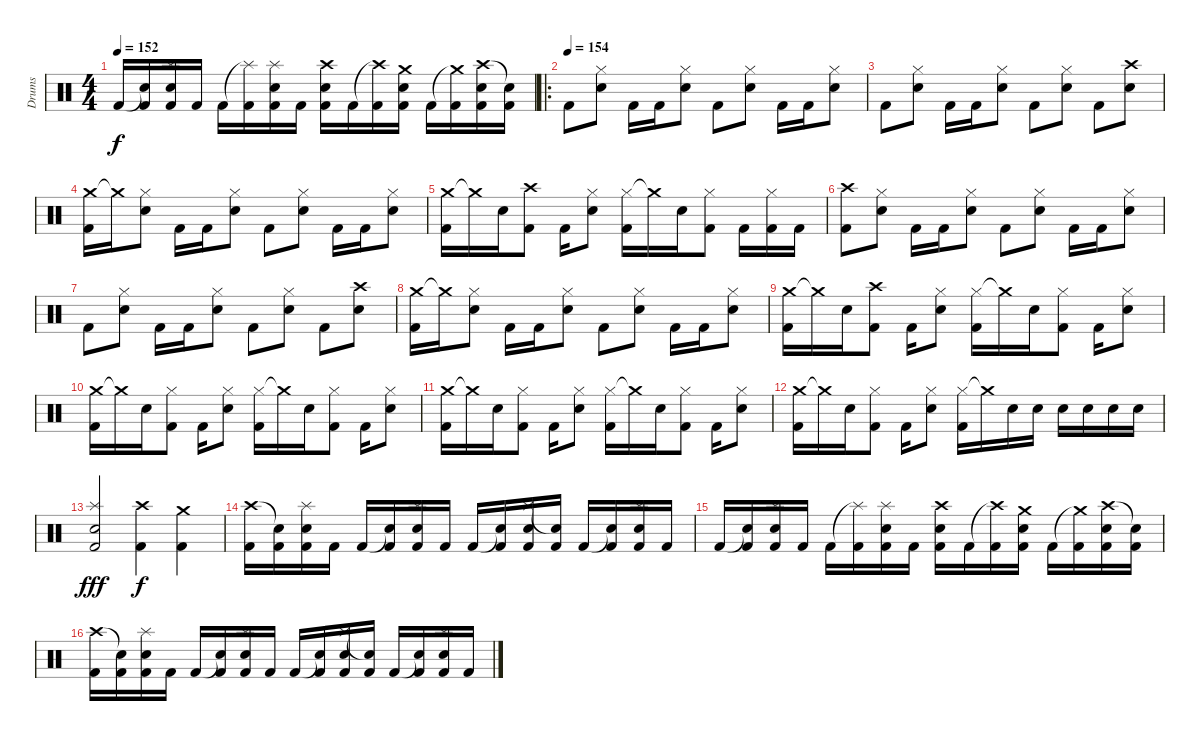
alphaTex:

\track ("Drums" "Drums") {instrument percussion}
\staff {score}
\articulation defaults
\ts (4 4)
\tempo 152
\clef neutral
\ks c "Kick (hit) 2".16{dy f}
("Snare (hit)"{t} "Kick (hit) 2").16 ("Splash (hit)" "Electric Snare (hit)" "Kick (hit) 2").16 "Kick (hit) 2".16 "Kick (hit) 2".16 ("Splash (hit)"{t} "Kick (hit) 2").16 ("Splash (hit)" "Electric Snare (hit)" "Kick (hit) 2").16 "Kick (hit) 2".16 ("Crash high (hit)" "Electric Snare (hit)" "Kick (hit) 2").16 "Kick (hit) 2".16 ("Crash high (hit)"{t} "Kick (hit) 2").16 ("Crash medium (hit)" "Electric Snare (hit)" "Kick (hit) 2").16 "Kick (hit) 2".16 ("Crash medium (hit)"{t} "Kick (hit) 2").16 ("Crash high (hit)" "Electric Snare (hit)" "Kick (hit) 2").16 ("Snare (hit)"{t} "Kick (hit) 2").16 |
\ro
\tempo (154)
"Kick (hit) 2".8 ("Hi-Hat (closed)" "Electric Snare (hit)").8 "Kick (hit) 2".16 "Kick (hit) 2".16 ("Hi-Hat (closed)" "Electric Snare (hit)").8 "Kick (hit) 2".8 ("Hi-Hat (closed)" "Electric Snare (hit)").8 "Kick (hit) 2".16 "Kick (hit) 2".16 ("Hi-Hat (closed)" "Electric Snare (hit)").8 |
"Kick (hit) 2".8 ("Hi-Hat (closed)" "Electric Snare (hit)").8 "Kick (hit) 2".16 "Kick (hit) 2".16 ("Hi-Hat (closed)" "Electric Snare (hit)").8 "Kick (hit) 2".8 ("Hi-Hat (closed)" "Electric Snare (hit)").8 "Kick (hit) 2".8 ("Crash high (hit)" "Electric Snare (hit)").8 |
("Crash medium (hit)" "Kick (hit) 2").16 "Crash medium (hit)"{t}.16 ("Hi-Hat (closed)" "Electric Snare (hit)").8 "Kick (hit) 2".16 "Kick (hit) 2".16 ("Hi-Hat (closed)" "Electric Snare (hit)").8 "Kick (hit) 2".8 ("Hi-Hat (closed)" "Electric Snare (hit)").8 "Kick (hit) 2".16 "Kick (hit) 2".16 ("Hi-Hat (closed)" "Electric Snare (hit)").8 |
("Crash medium (hit)" "Kick (hit) 2").16 "Crash medium (hit)"{t}.16 "Electric Snare (hit)".16 ("Crash high (hit)" "Kick (hit) 2").8 "Kick (hit) 2".16 ("Hi-Hat (closed)" "Electric Snare (hit)").8 ("Hi-Hat (closed)" "Kick (hit) 2").16 "Crash medium (hit)"{t}.16 "Electric Snare (hit)".16 ("Hi-Hat (closed)" "Kick (hit) 2").8 "Kick (hit) 2".16 ("Hi-Hat (closed)" "Kick (hit) 2").16 "Kick (hit) 2".16 |
("Crash high (hit)" "Kick (hit) 2").8 ("Hi-Hat (closed)" "Electric Snare (hit)").8 "Kick (hit) 2".16 "Kick (hit) 2".16 ("Hi-Hat (closed)" "Electric Snare (hit)").8 "Kick (hit) 2".8 ("Hi-Hat (closed)" "Electric Snare (hit)").8 "Kick (hit) 2".16 "Kick (hit) 2".16 ("Hi-Hat (closed)" "Electric Snare (hit)").8 |
"Kick (hit) 2".8 ("Hi-Hat (closed)" "Electric Snare (hit)").8 "Kick (hit) 2".16 "Kick (hit) 2".16 ("Hi-Hat (closed)" "Electric Snare (hit)").8 "Kick (hit) 2".8 ("Hi-Hat (closed)" "Electric Snare (hit)").8 "Kick (hit) 2".8 ("Crash high (hit)" "Electric Snare (hit)").8 |
("Crash medium (hit)" "Kick (hit) 2").16 "Crash medium (hit)"{t}.16 ("Hi-Hat (closed)" "Electric Snare (hit)").8 "Kick (hit) 2".16 "Kick (hit) 2".16 ("Hi-Hat (closed)" "Electric Snare (hit)").8 "Kick (hit) 2".8 ("Hi-Hat (closed)" "Electric Snare (hit)").8 "Kick (hit) 2".16 "Kick (hit) 2".16 ("Hi-Hat (closed)" "Electric Snare (hit)").8 |
("Crash medium (hit)" "Kick (hit) 2").16 "Crash medium (hit)"{t}.16 "Electric Snare (hit)".16 ("Crash high (hit)" "Kick (hit) 2").8 "Kick (hit) 2".16 ("Hi-Hat (closed)" "Electric Snare (hit)").8 ("Hi-Hat (closed)" "Kick (hit) 2").16 "Crash medium (hit)"{t}.16 "Electric Snare (hit)".16 ("Hi-Hat (closed)" "Kick (hit) 2").8 "Kick (hit) 2".16 ("Hi-Hat (closed)" "Electric Snare (hit)").8 |
("Crash medium (hit)" "Kick (hit) 2").16 "Crash medium (hit)"{t}.16 "Electric Snare (hit)".16 ("Hi-Hat (closed)" "Kick (hit) 2").8 "Kick (hit) 2".16 ("Hi-Hat (closed)" "Electric Snare (hit)").8 ("Hi-Hat (closed)" "Kick (hit) 2").16 "Crash medium (hit)"{t}.16 "Electric Snare (hit)".16 ("Hi-Hat (closed)" "Kick (hit) 2").8 "Kick (hit) 2".16 ("Hi-Hat (closed)" "Electric Snare (hit)").8 |
("Crash medium (hit)" "Kick (hit) 2").16 "Crash medium (hit)"{t}.16 "Electric Snare (hit)".16 ("Hi-Hat (closed)" "Kick (hit) 2").8 "Kick (hit) 2".16 ("Hi-Hat (closed)" "Electric Snare (hit)").8 ("Hi-Hat (closed)" "Kick (hit) 2").16 "Crash medium (hit)"{t}.16 "Electric Snare (hit)".16 ("Hi-Hat (closed)" "Kick (hit) 2").8 "Kick (hit) 2".16 ("Hi-Hat (closed)" "Electric Snare (hit)").8 |
("Crash medium (hit)" "Kick (hit) 2").16 "Crash medium (hit)"{t}.16 "Electric Snare (hit)".16 ("Hi-Hat (closed)" "Kick (hit) 2").8 "Kick (hit) 2".16 ("Hi-Hat (closed)" "Electric Snare (hit)").8 ("Hi-Hat (closed)" "Kick (hit) 2").16 "Crash medium (hit)"{t}.16 "Electric Snare (hit)".16 "Electric Snare (hit)".16 "Electric Snare (hit)".16 "Electric Snare (hit)".16 "Electric Snare (hit)".16 "Electric Snare (hit)".16 |
("Splash (hit)" "Electric Snare (hit)" "Kick (hit) 2").2{dy fff} ("Crash high (hit)" "Kick (hit) 2").4{dy f} ("Crash medium (hit)" "Kick (hit) 2").4 |
("Crash high (hit)" "Kick (hit) 2").16 ("Snare (hit)"{t} "Kick (hit) 2").16 ("Splash (hit)" "Electric Snare (hit)" "Kick (hit) 2").16 "Kick (hit) 2".16 "Kick (hit) 2".16 ("Snare (hit)"{t} "Kick (hit) 2").16 ("Splash (hit)" "Electric Snare (hit)" "Kick (hit) 2").16 "Kick (hit) 2".16 "Kick (hit) 2".16 ("Snare (hit)"{t} "Kick (hit) 2").16 ("Splash (hit)" "Electric Snare (hit)" "Kick (hit) 2").16 ("Snare (hit)"{t} "Kick (hit) 2").16 "Kick (hit) 2".16 ("Snare (hit)"{t} "Kick (hit) 2").16 ("Splash (hit)" "Electric Snare (hit)" "Kick (hit) 2").16 "Kick (hit) 2".16 |
"Kick (hit) 2".16 ("Snare (hit)"{t} "Kick (hit) 2").16 ("Splash (hit)" "Electric Snare (hit)" "Kick (hit) 2").16 "Kick (hit) 2".16 "Kick (hit) 2".16 ("Splash (hit)"{t} "Kick (hit) 2").16 ("Splash (hit)" "Electric Snare (hit)" "Kick (hit) 2").16 "Kick (hit) 2".16 ("Crash high (hit)" "Electric Snare (hit)" "Kick (hit) 2").16 "Kick (hit) 2".16 ("Crash high (hit)"{t} "Kick (hit) 2").16 ("Crash medium (hit)" "Electric Snare (hit)" "Kick (hit) 2").16 "Kick (hit) 2".16 ("Crash medium (hit)"{t} "Kick (hit) 2").16 ("Crash high (hit)" "Electric Snare (hit)" "Kick (hit) 2").16 ("Snare (hit)"{t} "Kick (hit) 2").16 |
("Crash high (hit)" "Kick (hit) 2").16 ("Snare (hit)"{t} "Kick (hit) 2").16 ("Splash (hit)" "Electric Snare (hit)" "Kick (hit) 2").16 "Kick (hit) 2".16 "Kick (hit) 2".16 ("Snare (hit)"{t} "Kick (hit) 2").16 ("Splash (hit)" "Electric Snare (hit)" "Kick (hit) 2").16 "Kick (hit) 2".16 "Kick (hit) 2".16 ("Snare (hit)"{t} "Kick (hit) 2").16 ("Splash (hit)" "Electric Snare (hit)" "Kick (hit) 2").16 ("Snare (hit)"{t} "Kick (hit) 2").16 "Kick (hit) 2".16 ("Snare (hit)"{t} "Kick (hit) 2").16 ("Splash (hit)" "Electric Snare (hit)" "Kick (hit) 2").16 "Kick (hit) 2".16
